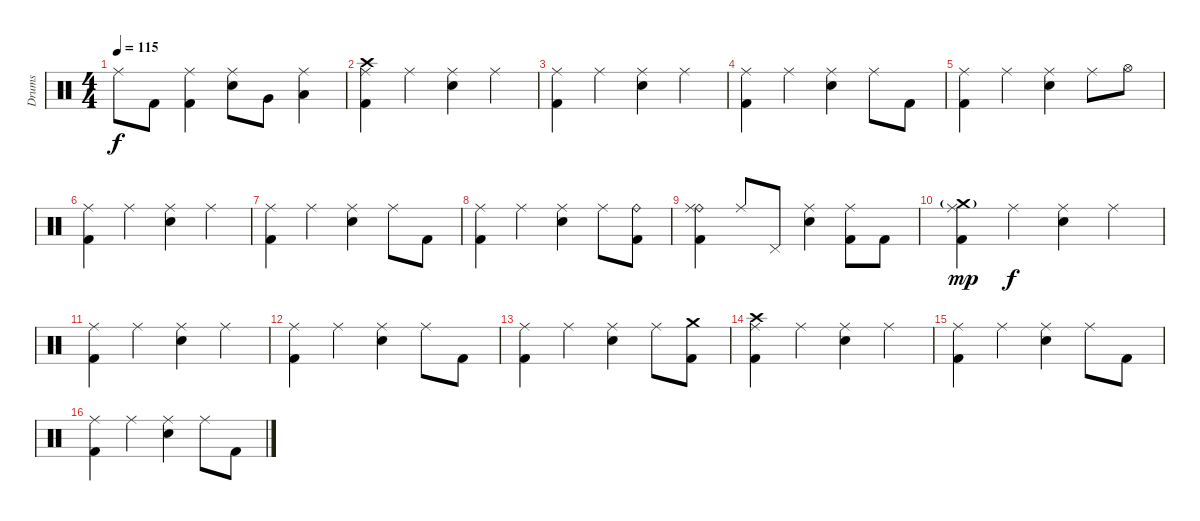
\track ("Drums" "Drums") {instrument percussion}
\staff {score}
\articulation defaults
\ts (4 4)
\tempo 115
\clef neutral
\ks c "Ride (middle)".8{dy f} "Kick (hit) 2".8
("Ride (middle)" "Kick (hit) 2").4 ("Ride (middle)" "Electric Snare (hit)").8 "Very Low Tom (hit)".8 ("Ride (middle)" "Low Tom (hit)").4 |
("Crash high (hit)" "Ride (middle)" "Kick (hit) 2").4 "Ride (middle)".4 ("Ride (middle)" "Electric Snare (hit)").4 "Ride (middle)".4 |
("Ride (middle)" "Kick (hit) 2").4 "Ride (middle)".4 ("Ride (middle)" "Electric Snare (hit)").4 "Ride (middle)".4 |
("Ride (middle)" "Kick (hit) 2").4 "Ride (middle)".4 ("Ride (middle)" "Electric Snare (hit)").4 "Ride (middle)".8 "Kick (hit) 2".8 |
("Ride (middle)" "Kick (hit) 2").4 "Ride (middle)".4 ("Ride (middle)" "Electric Snare (hit)").4 "Ride (middle)".8 "Hi-Hat (open)".8 |
("Ride (middle)" "Kick (hit) 2").4 "Ride (middle)".4 ("Ride (middle)" "Electric Snare (hit)").4 "Ride (middle)".4 |
("Ride (middle)" "Kick (hit) 2").4 "Ride (middle)".4 ("Ride (middle)" "Electric Snare (hit)").4 "Ride (middle)".8 "Kick (hit) 2".8 |
("Ride (middle)" "Kick (hit) 2").4 "Ride (middle)".4 ("Ride (middle)" "Electric Snare (hit)").4 "Ride (middle)".8 ("Ride (bell)" "Kick (hit) 2").8 |
("Ride (bell)" "Ride (middle)" "Kick (hit) 2").4 "Ride (middle)".8 "Pedal Hi-Hat (hit)".8 ("Ride (middle)" "Electric Snare (hit)").4 ("Ride (middle)" "Kick (hit) 2").8 "Kick (hit) 2".8 |
("Crash medium (hit)"{g} "Ride (middle)" "Kick (hit) 2").4{dy mp} "Ride (middle)".4{dy f} ("Ride (middle)" "Electric Snare (hit)").4 "Ride (middle)".4 |
("Ride (middle)" "Kick (hit) 2").4 "Ride (middle)".4 ("Ride (middle)" "Electric Snare (hit)").4 "Ride (middle)".4 |
("Ride (middle)" "Kick (hit) 2").4 "Ride (middle)".4 ("Ride (middle)" "Electric Snare (hit)").4 "Ride (middle)".8 "Kick (hit) 2".8 |
("Ride (middle)" "Kick (hit) 2").4 "Ride (middle)".4 ("Ride (middle)" "Electric Snare (hit)").4 "Ride (middle)".8 ("Crash medium (hit)" "Kick (hit) 2").8 |
("Crash high (hit)" "Ride (middle)" "Kick (hit) 2").4 "Ride (middle)".4 ("Ride (middle)" "Electric Snare (hit)").4 "Ride (middle)".4 |
("Ride (middle)" "Kick (hit) 2").4 "Ride (middle)".4 ("Ride (middle)" "Electric Snare (hit)").4 "Ride (middle)".8 "Kick (hit) 2".8 |
("Ride (middle)" "Kick (hit) 2").4 "Ride (middle)".4 ("Ride (middle)" "Electric Snare (hit)").4 "Ride (middle)".8 "Kick (hit) 2".8
